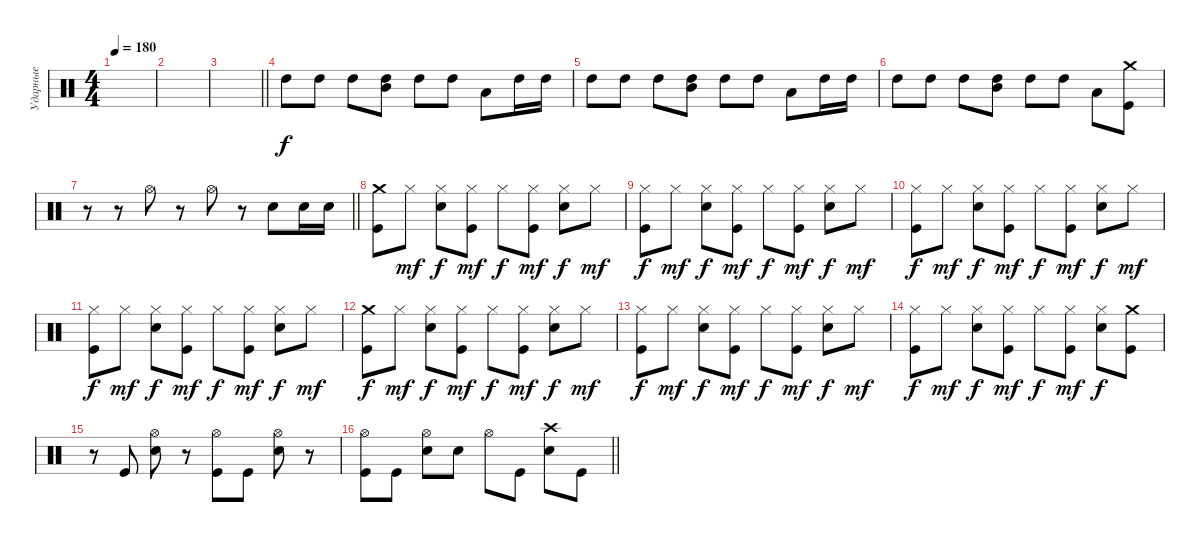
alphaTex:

\track ("Ударные" "Ударные") {instrument percussion}
\staff {score}
\articulation defaults
\ts (4 4)
\tempo 180
\clef neutral
\ks c
|
|
\barLineRight lightlight
|
"High Tom (hit)".8 "High Tom (hit)".8 "High Tom (hit)".8 ("Mid Tom (hit)" "High Tom (hit)").8 "High Tom (hit)".8 "High Tom (hit)".8 "Low Tom (hit)".8 "High Tom (hit)".16 "High Tom (hit)".16 |
"High Tom (hit)".8 "High Tom (hit)".8 "High Tom (hit)".8 ("Mid Tom (hit)" "High Tom (hit)").8 "High Tom (hit)".8 "High Tom (hit)".8 "Low Tom (hit)".8 "High Tom (hit)".16 "High Tom (hit)".16 |
"High Tom (hit)".8 "High Tom (hit)".8 "High Tom (hit)".8 ("Mid Tom (hit)" "High Tom (hit)").8 "High Tom (hit)".8 "High Tom (hit)".8 "Low Tom (hit)".8 ("Crash medium (hit)" "Kick (hit)").8 |
\barLineRight lightlight
r.8 r.8 "Hi-Hat (open)".8 r.8 "Hi-Hat (open)".8 r.8 "Electric Snare (hit)".8 "Electric Snare (hit)".16 "Electric Snare (hit)".16 |
\section ("" " ")
("Crash medium (hit)" "Kick (hit)").8 "Hi-Hat (closed)".8{dy mf} ("Hi-Hat (closed)" "Electric Snare (hit)").8{dy f} ("Hi-Hat (closed)" "Kick (hit)").8{dy mf} "Hi-Hat (closed)".8{dy f} ("Hi-Hat (closed)" "Kick (hit)").8{dy mf} ("Hi-Hat (closed)" "Electric Snare (hit)").8{dy f} "Hi-Hat (closed)".8{dy mf} |
("Hi-Hat (closed)" "Kick (hit)").8{dy f} "Hi-Hat (closed)".8{dy mf} ("Hi-Hat (closed)" "Electric Snare (hit)").8{dy f} ("Hi-Hat (closed)" "Kick (hit)").8{dy mf} "Hi-Hat (closed)".8{dy f} ("Hi-Hat (closed)" "Kick (hit)").8{dy mf} ("Hi-Hat (closed)" "Electric Snare (hit)").8{dy f} "Hi-Hat (closed)".8{dy mf} |
("Hi-Hat (closed)" "Kick (hit)").8{dy f} "Hi-Hat (closed)".8{dy mf} ("Hi-Hat (closed)" "Electric Snare (hit)").8{dy f} ("Hi-Hat (closed)" "Kick (hit)").8{dy mf} "Hi-Hat (closed)".8{dy f} ("Hi-Hat (closed)" "Kick (hit)").8{dy mf} ("Hi-Hat (closed)" "Electric Snare (hit)").8{dy f} "Hi-Hat (closed)".8{dy mf} |
("Hi-Hat (closed)" "Kick (hit)").8{dy f} "Hi-Hat (closed)".8{dy mf} ("Hi-Hat (closed)" "Electric Snare (hit)").8{dy f} ("Hi-Hat (closed)" "Kick (hit)").8{dy mf} "Hi-Hat (closed)".8{dy f} ("Hi-Hat (closed)" "Kick (hit)").8{dy mf} ("Hi-Hat (closed)" "Electric Snare (hit)").8{dy f} "Hi-Hat (closed)".8{dy mf} |
("Crash medium (hit)" "Kick (hit)").8{dy f} "Hi-Hat (closed)".8{dy mf} ("Hi-Hat (closed)" "Electric Snare (hit)").8{dy f} ("Hi-Hat (closed)" "Kick (hit)").8{dy mf} "Hi-Hat (closed)".8{dy f} ("Hi-Hat (closed)" "Kick (hit)").8{dy mf} ("Hi-Hat (closed)" "Electric Snare (hit)").8{dy f} "Hi-Hat (closed)".8{dy mf} |
("Hi-Hat (closed)" "Kick (hit)").8{dy f} "Hi-Hat (closed)".8{dy mf} ("Hi-Hat (closed)" "Electric Snare (hit)").8{dy f} ("Hi-Hat (closed)" "Kick (hit)").8{dy mf} "Hi-Hat (closed)".8{dy f} ("Hi-Hat (closed)" "Kick (hit)").8{dy mf} ("Hi-Hat (closed)" "Electric Snare (hit)").8{dy f} "Hi-Hat (closed)".8{dy mf} |
("Hi-Hat (closed)" "Kick (hit)").8{dy f} "Hi-Hat (closed)".8{dy mf} ("Hi-Hat (closed)" "Electric Snare (hit)").8{dy f} ("Hi-Hat (closed)" "Kick (hit)").8{dy mf} "Hi-Hat (closed)".8{dy f} ("Hi-Hat (closed)" "Kick (hit)").8{dy mf} ("Hi-Hat (closed)" "Electric Snare (hit)").8{dy f} ("Crash medium (hit)" "Kick (hit)").8 |
r.8 "Kick (hit)".8 ("Hi-Hat (open)" "Electric Snare (hit)").8 r.8 ("Hi-Hat (open)" "Kick (hit)").8 "Kick (hit)".8 ("Hi-Hat (open)" "Electric Snare (hit)").8 r.8 |
\barLineRight lightlight
("Hi-Hat (open)" "Kick (hit)").8 "Kick (hit)".8 ("Hi-Hat (open)" "Electric Snare (hit)").8 "Electric Snare (hit)".8 "Hi-Hat (open)".8 "Kick (hit)".8 ("Crash high (hit)" "Electric Snare (hit)").8 "Kick (hit)".8
